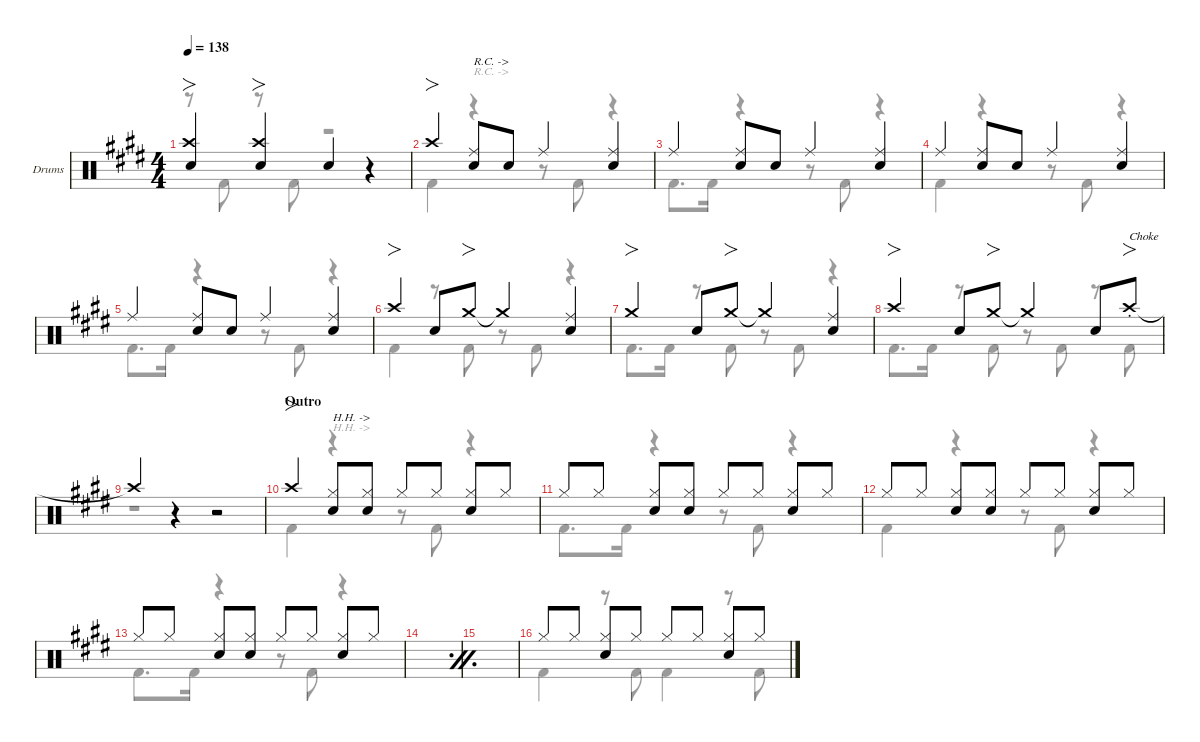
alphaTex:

\defaultSystemsLayout 4
\hideDynamics
\bracketExtendMode nobrackets
\firstSystemTrackNameOrientation horizontal
\track ("Drums" "Drums") {defaultSystemsLayout 4 instrument percussion}
\staff {score}
\articulation defaults
\voice
\ts (4 4)
\tempo 138
\clef neutral
\scale
0.244132
\ks c#minor
("Crash high (hit)"{acc forcenatural} "Snare (hit) 2"{acc forcenatural}).4{fo dy f beam Up} ("Snare (hit) 2"{acc forcenatural} "Crash high (hit)"{acc forcenatural}).4{fo beam Up} "Snare (hit) 2"{acc forcenatural}.4{beam Up} r.4{beam Up} |
\scale
0.267605 "Crash high (hit)"{acc forcenatural}.4{fo beam Up} ("Ride (middle)"{acc forcenatural} "Snare (hit) 2"{acc forcenatural}).8{txt "R.C. ->" beam Up} "Snare (hit) 2"{acc forcenatural}.8{beam Up} "Ride (middle)"{acc forcenatural}.4{beam Up} ("Ride (middle)"{acc forcenatural} "Snare (hit) 2"{acc forcenatural}).4{beam Up} |
\scale
0.244132 "Ride (middle)"{acc forcenatural}.4{beam Up} ("Ride (middle)"{acc forcenatural} "Snare (hit) 2"{acc forcenatural}).8{beam Up} "Snare (hit) 2"{acc forcenatural}.8{beam Up} "Ride (middle)"{acc forcenatural}.4{beam Up} ("Ride (middle)"{acc forcenatural} "Snare (hit) 2"{acc forcenatural}).4{beam Up} |
\scale
0.244132 "Ride (middle)"{acc forcenatural}.4{beam Up} ("Ride (middle)"{acc forcenatural} "Snare (hit) 2"{acc forcenatural}).8{beam Up} "Snare (hit) 2"{acc forcenatural}.8{beam Up} "Ride (middle)"{acc forcenatural}.4{beam Up} ("Ride (middle)"{acc forcenatural} "Snare (hit) 2"{acc forcenatural}).4{beam Up} |
\scale
0.244132 "Ride (middle)"{acc forcenatural}.4{beam Up} ("Ride (middle)"{acc forcenatural} "Snare (hit) 2"{acc forcenatural}).8{beam Up} "Snare (hit) 2"{acc forcenatural}.8{beam Up} "Ride (middle)"{acc forcenatural}.4{beam Up} ("Ride (middle)"{acc forcenatural} "Snare (hit) 2"{acc forcenatural}).4{beam Up} |
\scale
0.2665 "Crash high (hit)"{acc forcenatural}.4{fo beam Up} "Snare (hit) 2"{acc forcenatural}.8{beam Up} "Crash medium (hit)"{acc forcenatural}.8{fo beam Up} "Crash medium (hit)"{t acc forcenatural}.4{beam Up} ("Ride (middle)"{acc forcenatural} "Snare (hit) 2"{acc forcenatural}).4{beam Up} |
\scale
0.243026 "Crash medium (hit)"{acc forcenatural}.4{fo beam Up} "Snare (hit) 2"{acc forcenatural}.8{beam Up} "Crash medium (hit)"{acc forcenatural}.8{fo beam Up} "Crash medium (hit)"{t acc forcenatural}.4{beam Up} ("Ride (middle)"{acc forcenatural} "Snare (hit) 2"{acc forcenatural}).4{beam Up} |
\scale
0.243026 "Crash high (hit)"{acc forcenatural}.4{fo beam Up} "Snare (hit) 2"{acc forcenatural}.8{beam Up} "Crash medium (hit)"{acc forcenatural}.8{fo beam Up} "Crash medium (hit)"{t acc forcenatural}.4{beam Up} "Snare (hit) 2"{acc forcenatural}.8{beam Up} "Crash high (hit)"{st acc forcenatural}.8{fo txt "Choke" beam Up} |
\scale
0.247447 "Crash high (hit)"{t acc forcenatural}.4{beam Up} r.4{beam Up} r.2{beam Up} |
\section ("" "Outro")
\scale
0.267605 "Crash high (hit)"{acc forcenatural}.4{fo beam Up} ("Hi-Hat (closed)"{acc forcenatural} "Snare (hit) 2"{acc forcenatural}).8{txt "H.H. ->" beam Up} ("Hi-Hat (closed)"{acc forcenatural} "Snare (hit) 2"{acc forcenatural}).8{beam Up} "Hi-Hat (closed)"{acc forcenatural}.8{beam Up} "Hi-Hat (closed)"{acc forcenatural}.8{dy mp beam Up} ("Hi-Hat (closed)"{acc forcenatural} "Snare (hit) 2"{acc forcenatural}).8{dy f beam Up} "Hi-Hat (closed)"{acc forcenatural}.8{dy mp beam Up} |
\scale
0.244132 "Hi-Hat (closed)"{acc forcenatural}.8{dy f beam Up} "Hi-Hat (closed)"{acc forcenatural}.8{dy mp beam Up} ("Hi-Hat (closed)"{acc forcenatural} "Snare (hit) 2"{acc forcenatural}).8{dy f beam Up} ("Hi-Hat (closed)"{acc forcenatural} "Snare (hit) 2"{acc forcenatural}).8{beam Up} "Hi-Hat (closed)"{acc forcenatural}.8{beam Up} "Hi-Hat (closed)"{acc forcenatural}.8{dy mp beam Up} ("Hi-Hat (closed)"{acc forcenatural} "Snare (hit) 2"{acc forcenatural}).8{dy f beam Up} "Hi-Hat (closed)"{acc forcenatural}.8{dy mp beam Up} |
\scale
0.244132 "Hi-Hat (closed)"{acc forcenatural}.8{dy f beam Up} "Hi-Hat (closed)"{acc forcenatural}.8{dy mp beam Up} ("Hi-Hat (closed)"{acc forcenatural} "Snare (hit) 2"{acc forcenatural}).8{dy f beam Up} ("Hi-Hat (closed)"{acc forcenatural} "Snare (hit) 2"{acc forcenatural}).8{beam Up} "Hi-Hat (closed)"{acc forcenatural}.8{beam Up} "Hi-Hat (closed)"{acc forcenatural}.8{dy mp beam Up} ("Hi-Hat (closed)"{acc forcenatural} "Snare (hit) 2"{acc forcenatural}).8{dy f beam Up} "Hi-Hat (closed)"{acc forcenatural}.8{dy mp beam Up} |
\scale
0.244132 "Hi-Hat (closed)"{acc forcenatural}.8{dy f beam Up} "Hi-Hat (closed)"{acc forcenatural}.8{dy mp beam Up} ("Hi-Hat (closed)"{acc forcenatural} "Snare (hit) 2"{acc forcenatural}).8{dy f beam Up} ("Hi-Hat (closed)"{acc forcenatural} "Snare (hit) 2"{acc forcenatural}).8{beam Up} "Hi-Hat (closed)"{acc forcenatural}.8{beam Up} "Hi-Hat (closed)"{acc forcenatural}.8{dy mp beam Up} ("Hi-Hat (closed)"{acc forcenatural} "Snare (hit) 2"{acc forcenatural}).8{dy f beam Up} "Hi-Hat (closed)"{acc forcenatural}.8{dy mp beam Up} |
\simile firstofdouble
\scale
0.267605 |
\simile secondofdouble
\scale
0.244132 |
\simile none
\scale
0.244132 "Hi-Hat (closed)"{acc forcenatural}.8{dy f beam Up} "Hi-Hat (closed)"{acc forcenatural}.8{dy mp beam Up} ("Hi-Hat (closed)"{acc forcenatural} "Snare (hit) 2"{acc forcenatural}).8{dy f beam Up} "Hi-Hat (closed)"{acc forcenatural}.8{dy mp beam Up} "Hi-Hat (closed)"{acc forcenatural}.8{dy f beam Up} "Hi-Hat (closed)"{acc forcenatural}.8{dy mp beam Up} ("Hi-Hat (closed)"{acc forcenatural} "Snare (hit) 2"{acc forcenatural}).8{dy f beam Up} "Hi-Hat (closed)"{acc forcenatural}.8{dy mp beam Up}
\voice
\clef neutral
\ottava regular
\simile none
\scale
0.244132
\ks c#minor
r.8{dy f beam Down} "Kick (hit) 2"{acc forcenatural}.8{beam Down} r.8{beam Down} "Kick (hit) 2"{acc forcenatural}.8{beam Down} r.2{beam Down} |
\scale
0.267605 "Kick (hit) 2"{acc forcenatural}.4{beam Down} r.4{txt "R.C. ->" beam Down} r.8{beam Down} "Kick (hit) 2"{acc forcenatural}.8{beam Down} r.4{beam Down} |
\scale
0.244132 "Kick (hit) 2"{acc forcenatural}.8{d beam Down} "Kick (hit) 2"{acc forcenatural}.16{beam Down} r.4{beam Down} r.8{beam Down} "Kick (hit) 2"{acc forcenatural}.8{beam Down} r.4{beam Down} |
\scale
0.244132 "Kick (hit) 2"{acc forcenatural}.4{beam Down} r.4{beam Down} r.8{beam Down} "Kick (hit) 2"{acc forcenatural}.8{beam Down} r.4{beam Down} |
\scale
0.244132 "Kick (hit) 2"{acc forcenatural}.8{d beam Down} "Kick (hit) 2"{acc forcenatural}.16{beam Down} r.4{beam Down} r.8{beam Down} "Kick (hit) 2"{acc forcenatural}.8{beam Down} r.4{beam Down} |
\scale
0.2665 "Kick (hit) 2"{acc forcenatural}.4{beam Down} r.8{beam Down} "Kick (hit) 2"{acc forcenatural}.8{beam Down} r.8{beam Down} "Kick (hit) 2"{acc forcenatural}.8{beam Down} r.4{beam Down} |
\scale
0.243026 "Kick (hit) 2"{acc forcenatural}.8{d beam Down} "Kick (hit) 2"{acc forcenatural}.16{beam Down beam split} r.8{beam Down beam split} "Kick (hit) 2"{acc forcenatural}.8{beam Down} r.8{beam Down} "Kick (hit) 2"{acc forcenatural}.8{beam Down} r.4{beam Down} |
\scale
0.243026 "Kick (hit) 2"{acc forcenatural}.8{d beam Down} "Kick (hit) 2"{acc forcenatural}.16{beam Down beam split} r.8{beam Down beam split} "Kick (hit) 2"{acc forcenatural}.8{beam Down} r.8{beam Down} "Kick (hit) 2"{acc forcenatural}.8{beam Down} r.8{beam Down} "Kick (hit) 2"{acc forcenatural}.8{txt "Choke" beam Down} |
\scale
0.247447 r.1{beam Down} |
\scale
0.267605 "Kick (hit) 2"{acc forcenatural}.4{beam Down} r.4{txt "H.H. ->" beam Down} r.8{beam Down} "Kick (hit) 2"{acc forcenatural}.8{beam Down} r.4{beam Down} |
\scale
0.244132 "Kick (hit) 2"{acc forcenatural}.8{d beam Down} "Kick (hit) 2"{acc forcenatural}.16{beam Down} r.4{beam Down} r.8{beam Down} "Kick (hit) 2"{acc forcenatural}.8{beam Down} r.4{beam Down} |
\scale
0.244132 "Kick (hit) 2"{acc forcenatural}.4{beam Down} r.4{beam Down} r.8{beam Down} "Kick (hit) 2"{acc forcenatural}.8{beam Down} r.4{beam Down} |
\scale
0.244132 "Kick (hit) 2"{acc forcenatural}.8{d beam Down} "Kick (hit) 2"{acc forcenatural}.16{beam Down} r.4{beam Down} r.8{beam Down} "Kick (hit) 2"{acc forcenatural}.8{beam Down} r.4{beam Down} |
\simile firstofdouble
\scale
0.267605 |
\simile secondofdouble
\scale
0.244132 |
\simile none
\scale
0.244132 "Kick (hit) 2"{acc forcenatural}.4{beam Down} r.8{beam Down} "Kick (hit) 2"{acc forcenatural}.8{beam Down} "Kick (hit) 2"{acc forcenatural}.4{beam Down} r.8{beam Down} "Kick (hit) 2"{acc forcenatural}.8{beam Down}
